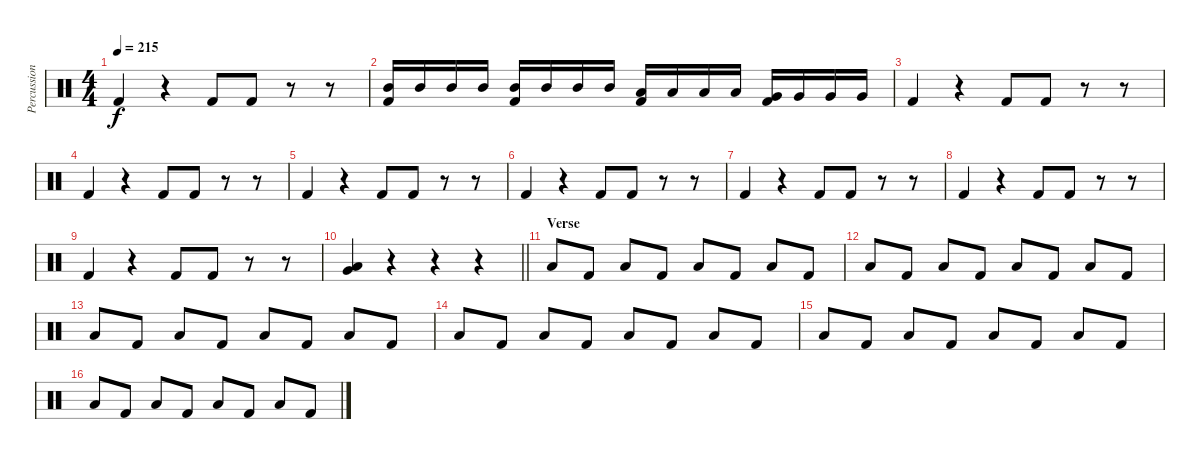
\track ("Percussion" "Percussion") {instrument percussion}
\staff {score}
\articulation defaults
\ts (4 4)
\tempo 215
\clef neutral
\ks c "Kick (hit) 2".4{dy f}
r.4 "Kick (hit) 2".8 "Kick (hit) 2".8 r.8 r.8 |
("Mid Tom (hit)" "Kick (hit) 2").16 "Mid Tom (hit)".16 "Mid Tom (hit)".16 "Mid Tom (hit)".16 ("Mid Tom (hit)" "Kick (hit) 2").16 "Mid Tom (hit)".16 "Mid Tom (hit)".16 "Mid Tom (hit)".16 ("Low Tom (hit)" "Kick (hit) 2").16 "Low Tom (hit)".16 "Low Tom (hit)".16 "Low Tom (hit)".16 ("Very Low Tom (hit)" "Kick (hit) 2").16 "Very Low Tom (hit)".16 "Very Low Tom (hit)".16 "Very Low Tom (hit)".16 |
"Kick (hit) 2".4 r.4 "Kick (hit) 2".8 "Kick (hit) 2".8 r.8 r.8 |
"Kick (hit) 2".4 r.4 "Kick (hit) 2".8 "Kick (hit) 2".8 r.8 r.8 |
"Kick (hit) 2".4 r.4 "Kick (hit) 2".8 "Kick (hit) 2".8 r.8 r.8 |
"Kick (hit) 2".4 r.4 "Kick (hit) 2".8 "Kick (hit) 2".8 r.8 r.8 |
"Kick (hit) 2".4 r.4 "Kick (hit) 2".8 "Kick (hit) 2".8 r.8 r.8 |
"Kick (hit) 2".4 r.4 "Kick (hit) 2".8 "Kick (hit) 2".8 r.8 r.8 |
"Kick (hit) 2".4 r.4 "Kick (hit) 2".8 "Kick (hit) 2".8 r.8 r.8 |
\barLineRight lightlight
("Very Low Tom (hit)" "Low Tom (hit)").4 r.4 r.4 r.4 |
\section ("" "Verse")
"Low Floor Tom (hit)".8 "Kick (hit) 2".8 "Low Floor Tom (hit)".8 "Kick (hit) 2".8 "Low Floor Tom (hit)".8 "Kick (hit) 2".8 "Low Floor Tom (hit)".8 "Kick (hit) 2".8 |
"Low Floor Tom (hit)".8 "Kick (hit) 2".8 "Low Floor Tom (hit)".8 "Kick (hit) 2".8 "Low Floor Tom (hit)".8 "Kick (hit) 2".8 "Low Floor Tom (hit)".8 "Kick (hit) 2".8 |
"Low Floor Tom (hit)".8 "Kick (hit) 2".8 "Low Floor Tom (hit)".8 "Kick (hit) 2".8 "Low Floor Tom (hit)".8 "Kick (hit) 2".8 "Low Floor Tom (hit)".8 "Kick (hit) 2".8 |
"Low Floor Tom (hit)".8 "Kick (hit) 2".8 "Low Floor Tom (hit)".8 "Kick (hit) 2".8 "Low Floor Tom (hit)".8 "Kick (hit) 2".8 "Low Floor Tom (hit)".8 "Kick (hit) 2".8 |
"Low Floor Tom (hit)".8 "Kick (hit) 2".8 "Low Floor Tom (hit)".8 "Kick (hit) 2".8 "Low Floor Tom (hit)".8 "Kick (hit) 2".8 "Low Floor Tom (hit)".8 "Kick (hit) 2".8 |
"Low Floor Tom (hit)".8 "Kick (hit) 2".8 "Low Floor Tom (hit)".8 "Kick (hit) 2".8 "Low Floor Tom (hit)".8 "Kick (hit) 2".8 "Low Floor Tom (hit)".8 "Kick (hit) 2".8
